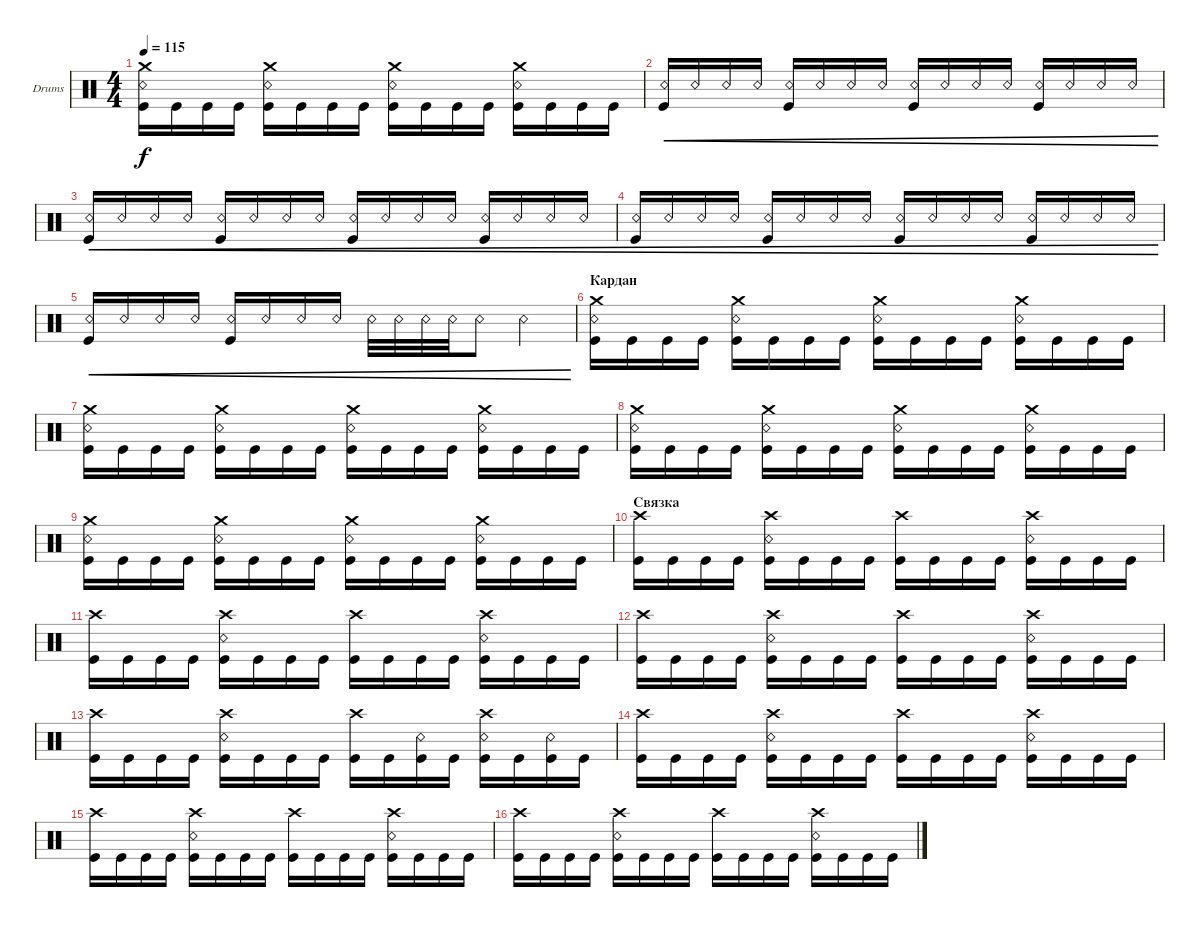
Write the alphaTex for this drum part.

\bracketExtendMode groupsimilarinstruments
\firstSystemTrackNameOrientation horizontal
\otherSystemsTrackNameOrientation horizontal
\track ("Drumkit" "Drums") {instrument percussion}
\staff {score}
\articulation defaults
\ts (4 4)
\tempo 115
\clef neutral
\scale
0.333333
\ks c
("Kick (hit)" "Snare (rim shot)" "Crash medium (hit)").16{dy f} "Kick (hit)".16 "Kick (hit)".16 "Kick (hit)".16 ("Kick (hit)" "Snare (rim shot)" "Crash medium (hit)").16 "Kick (hit)".16 "Kick (hit)".16 "Kick (hit)".16 ("Kick (hit)" "Snare (rim shot)" "Crash medium (hit)").16 "Kick (hit)".16 "Kick (hit)".16 "Kick (hit)".16 ("Kick (hit)" "Snare (rim shot)" "Crash medium (hit)").16 "Kick (hit)".16 "Kick (hit)".16 "Kick (hit)".16 |
\scale
0.333333 ("Snare (rim shot)" "Kick (hit)").16{cre} "Snare (rim shot)".16{cre} "Snare (rim shot)".16{cre} "Snare (rim shot)".16{cre} ("Snare (rim shot)" "Kick (hit)").16{cre} "Snare (rim shot)".16{cre} "Snare (rim shot)".16{cre} "Snare (rim shot)".16{cre} ("Snare (rim shot)" "Kick (hit)").16{cre} "Snare (rim shot)".16{cre} "Snare (rim shot)".16{cre} "Snare (rim shot)".16{cre} ("Snare (rim shot)" "Kick (hit)").16{cre} "Snare (rim shot)".16{cre} "Snare (rim shot)".16{cre} "Snare (rim shot)".16{cre} |
\scale
0.333333 ("Snare (rim shot)" "Kick (hit)").16{cre} "Snare (rim shot)".16{cre} "Snare (rim shot)".16{cre} "Snare (rim shot)".16{cre} ("Snare (rim shot)" "Kick (hit)").16{cre} "Snare (rim shot)".16{cre} "Snare (rim shot)".16{cre} "Snare (rim shot)".16{cre} ("Snare (rim shot)" "Kick (hit)").16{cre} "Snare (rim shot)".16{cre} "Snare (rim shot)".16{cre} "Snare (rim shot)".16{cre} ("Snare (rim shot)" "Kick (hit)").16{cre} "Snare (rim shot)".16{cre} "Snare (rim shot)".16{cre} "Snare (rim shot)".16{cre} |
\scale
0.333333 ("Snare (rim shot)" "Kick (hit)").16{cre} "Snare (rim shot)".16{cre} "Snare (rim shot)".16{cre} "Snare (rim shot)".16{cre} ("Snare (rim shot)" "Kick (hit)").16{cre} "Snare (rim shot)".16{cre} "Snare (rim shot)".16{cre} "Snare (rim shot)".16{cre} ("Snare (rim shot)" "Kick (hit)").16{cre} "Snare (rim shot)".16{cre} "Snare (rim shot)".16{cre} "Snare (rim shot)".16{cre} ("Snare (rim shot)" "Kick (hit)").16{cre} "Snare (rim shot)".16{cre} "Snare (rim shot)".16{cre} "Snare (rim shot)".16{cre} |
\scale
0.333333 ("Snare (rim shot)" "Kick (hit)").16{cre} "Snare (rim shot)".16{cre} "Snare (rim shot)".16{cre} "Snare (rim shot)".16{cre} ("Snare (rim shot)" "Kick (hit)").16{cre} "Snare (rim shot)".16{cre} "Snare (rim shot)".16{cre} "Snare (rim shot)".16{cre} "Snare (rim shot)".32{cre} "Snare (rim shot)".32{cre} "Snare (rim shot)".32{cre} "Snare (rim shot)".32{cre} "Snare (rim shot)".8{cre} "Snare (rim shot)".4{cre} |
\section ("" "Кардан")
\scale
0.333333 ("Kick (hit)" "Snare (rim shot)" "Crash medium (hit)").16 "Kick (hit)".16 "Kick (hit)".16 "Kick (hit)".16 ("Kick (hit)" "Snare (rim shot)" "Crash medium (hit)").16 "Kick (hit)".16 "Kick (hit)".16 "Kick (hit)".16 ("Kick (hit)" "Snare (rim shot)" "Crash medium (hit)").16 "Kick (hit)".16 "Kick (hit)".16 "Kick (hit)".16 ("Kick (hit)" "Snare (rim shot)" "Crash medium (hit)").16 "Kick (hit)".16 "Kick (hit)".16 "Kick (hit)".16 |
\scale
0.333333 ("Kick (hit)" "Snare (rim shot)" "Crash medium (hit)").16 "Kick (hit)".16 "Kick (hit)".16 "Kick (hit)".16 ("Kick (hit)" "Snare (rim shot)" "Crash medium (hit)").16 "Kick (hit)".16 "Kick (hit)".16 "Kick (hit)".16 ("Kick (hit)" "Snare (rim shot)" "Crash medium (hit)").16 "Kick (hit)".16 "Kick (hit)".16 "Kick (hit)".16 ("Kick (hit)" "Snare (rim shot)" "Crash medium (hit)").16 "Kick (hit)".16 "Kick (hit)".16 "Kick (hit)".16 |
\scale
0.333333 ("Kick (hit)" "Snare (rim shot)" "Crash medium (hit)").16 "Kick (hit)".16 "Kick (hit)".16 "Kick (hit)".16 ("Kick (hit)" "Snare (rim shot)" "Crash medium (hit)").16 "Kick (hit)".16 "Kick (hit)".16 "Kick (hit)".16 ("Kick (hit)" "Snare (rim shot)" "Crash medium (hit)").16 "Kick (hit)".16 "Kick (hit)".16 "Kick (hit)".16 ("Kick (hit)" "Snare (rim shot)" "Crash medium (hit)").16 "Kick (hit)".16 "Kick (hit)".16 "Kick (hit)".16 |
\scale
0.333333 ("Kick (hit)" "Snare (rim shot)" "Crash medium (hit)").16 "Kick (hit)".16 "Kick (hit)".16 "Kick (hit)".16 ("Kick (hit)" "Snare (rim shot)" "Crash medium (hit)").16 "Kick (hit)".16 "Kick (hit)".16 "Kick (hit)".16 ("Kick (hit)" "Snare (rim shot)" "Crash medium (hit)").16 "Kick (hit)".16 "Kick (hit)".16 "Kick (hit)".16 ("Kick (hit)" "Snare (rim shot)" "Crash medium (hit)").16 "Kick (hit)".16 "Kick (hit)".16 "Kick (hit)".16 |
\section ("" "Связка")
\scale
0.333333 ("Kick (hit)" "Crash high (hit)").16 "Kick (hit)".16 "Kick (hit)".16 "Kick (hit)".16 ("Kick (hit)" "Snare (rim shot)" "Crash high (hit)").16 "Kick (hit)".16 "Kick (hit)".16 "Kick (hit)".16 ("Kick (hit)" "Crash high (hit)").16 "Kick (hit)".16 "Kick (hit)".16 "Kick (hit)".16 ("Kick (hit)" "Snare (rim shot)" "Crash high (hit)").16 "Kick (hit)".16 "Kick (hit)".16 "Kick (hit)".16 |
\scale
0.333333 ("Kick (hit)" "Crash high (hit)").16 "Kick (hit)".16 "Kick (hit)".16 "Kick (hit)".16 ("Kick (hit)" "Snare (rim shot)" "Crash high (hit)").16 "Kick (hit)".16 "Kick (hit)".16 "Kick (hit)".16 ("Kick (hit)" "Crash high (hit)").16 "Kick (hit)".16 "Kick (hit)".16 "Kick (hit)".16 ("Kick (hit)" "Snare (rim shot)" "Crash high (hit)").16 "Kick (hit)".16 "Kick (hit)".16 "Kick (hit)".16 |
\scale
0.333333 ("Kick (hit)" "Crash high (hit)").16 "Kick (hit)".16 "Kick (hit)".16 "Kick (hit)".16 ("Kick (hit)" "Snare (rim shot)" "Crash high (hit)").16 "Kick (hit)".16 "Kick (hit)".16 "Kick (hit)".16 ("Kick (hit)" "Crash high (hit)").16 "Kick (hit)".16 "Kick (hit)".16 "Kick (hit)".16 ("Kick (hit)" "Snare (rim shot)" "Crash high (hit)").16 "Kick (hit)".16 "Kick (hit)".16 "Kick (hit)".16 |
\scale
0.333333 ("Kick (hit)" "Crash high (hit)").16 "Kick (hit)".16 "Kick (hit)".16 "Kick (hit)".16 ("Kick (hit)" "Snare (rim shot)" "Crash high (hit)").16 "Kick (hit)".16 "Kick (hit)".16 "Kick (hit)".16 ("Kick (hit)" "Crash high (hit)").16 "Kick (hit)".16 ("Kick (hit)" "Snare (rim shot)").16 "Kick (hit)".16 ("Kick (hit)" "Snare (rim shot)" "Crash high (hit)").16 "Kick (hit)".16 ("Kick (hit)" "Snare (rim shot)").16 "Kick (hit)".16 |
\scale
0.333333 ("Kick (hit)" "Crash high (hit)").16 "Kick (hit)".16 "Kick (hit)".16 "Kick (hit)".16 ("Kick (hit)" "Snare (rim shot)" "Crash high (hit)").16 "Kick (hit)".16 "Kick (hit)".16 "Kick (hit)".16 ("Kick (hit)" "Crash high (hit)").16 "Kick (hit)".16 "Kick (hit)".16 "Kick (hit)".16 ("Kick (hit)" "Snare (rim shot)" "Crash high (hit)").16 "Kick (hit)".16 "Kick (hit)".16 "Kick (hit)".16 |
\scale
0.333333 ("Kick (hit)" "Crash high (hit)").16 "Kick (hit)".16 "Kick (hit)".16 "Kick (hit)".16 ("Kick (hit)" "Snare (rim shot)" "Crash high (hit)").16 "Kick (hit)".16 "Kick (hit)".16 "Kick (hit)".16 ("Kick (hit)" "Crash high (hit)").16 "Kick (hit)".16 "Kick (hit)".16 "Kick (hit)".16 ("Kick (hit)" "Snare (rim shot)" "Crash high (hit)").16 "Kick (hit)".16 "Kick (hit)".16 "Kick (hit)".16 |
\scale
0.333333 ("Kick (hit)" "Crash high (hit)").16 "Kick (hit)".16 "Kick (hit)".16 "Kick (hit)".16 ("Kick (hit)" "Snare (rim shot)" "Crash high (hit)").16 "Kick (hit)".16 "Kick (hit)".16 "Kick (hit)".16 ("Kick (hit)" "Crash high (hit)").16 "Kick (hit)".16 "Kick (hit)".16 "Kick (hit)".16 ("Kick (hit)" "Snare (rim shot)" "Crash high (hit)").16 "Kick (hit)".16 "Kick (hit)".16 "Kick (hit)".16
